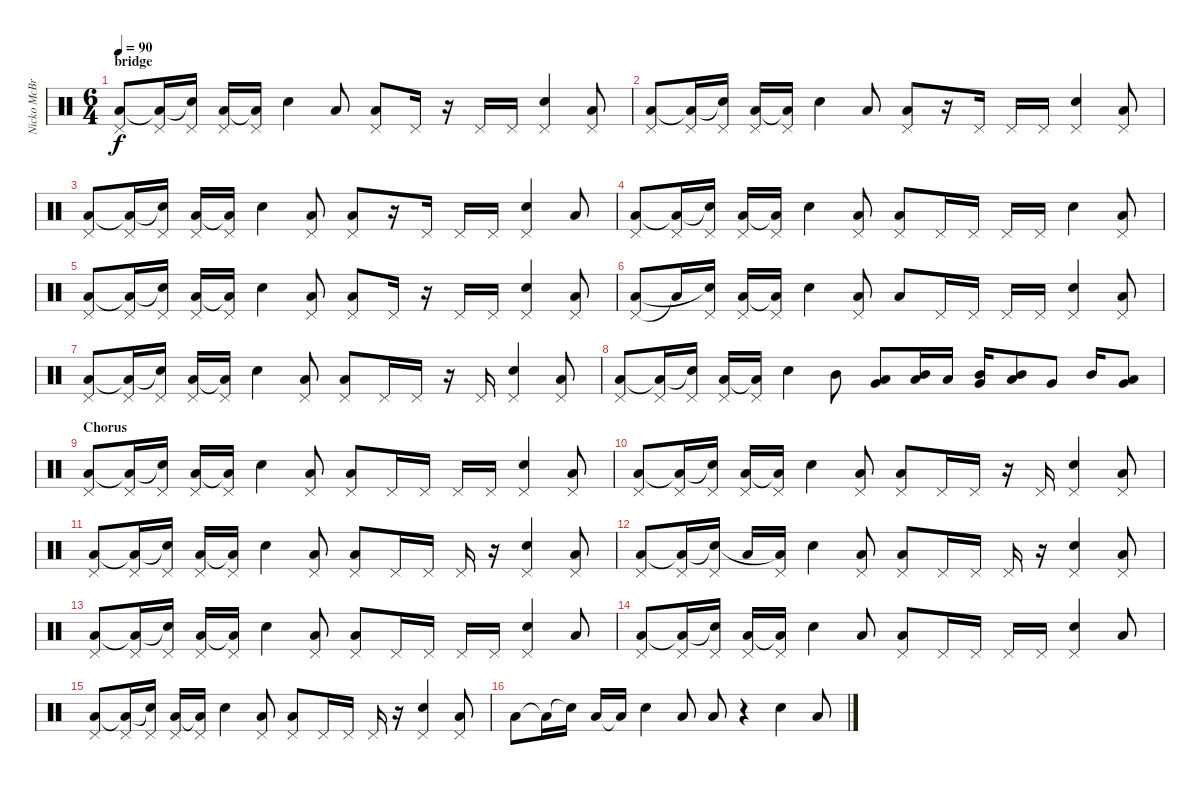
\track ("Nicko McBrain" "Nicko McBr") {instrument percussion}
\staff {score}
\articulation defaults
\ts (6 4)
\section ("" "bridge")
\tempo 90
\clef neutral
\ks c
("Pedal Hi-Hat (hit)" "Low Floor Tom (hit)").8{dy f} ("Pedal Hi-Hat (hit)" "Low Floor Tom (hit)"{t}).16 ("Pedal Hi-Hat (hit)" "Electric Snare (hit)"{t}).16 ("Pedal Hi-Hat (hit)" "Low Floor Tom (hit)").16 ("Pedal Hi-Hat (hit)" "Low Floor Tom (hit)"{t}).16 "Electric Snare (hit)".4 "Low Floor Tom (hit)".8 ("Pedal Hi-Hat (hit)" "Low Floor Tom (hit)").8 "Pedal Hi-Hat (hit)".16 r.16 "Pedal Hi-Hat (hit)".16 "Pedal Hi-Hat (hit)".16 ("Pedal Hi-Hat (hit)" "Electric Snare (hit)").4 ("Pedal Hi-Hat (hit)" "Low Floor Tom (hit)").8 |
("Pedal Hi-Hat (hit)" "Low Floor Tom (hit)").8 ("Pedal Hi-Hat (hit)" "Low Floor Tom (hit)"{t}).16 ("Pedal Hi-Hat (hit)" "Electric Snare (hit)"{t}).16 ("Pedal Hi-Hat (hit)" "Low Floor Tom (hit)").16 ("Pedal Hi-Hat (hit)" "Low Floor Tom (hit)"{t}).16 "Electric Snare (hit)".4 "Low Floor Tom (hit)".8 ("Pedal Hi-Hat (hit)" "Low Floor Tom (hit)").8 r.16 "Pedal Hi-Hat (hit)".16 "Pedal Hi-Hat (hit)".16 "Pedal Hi-Hat (hit)".16 ("Pedal Hi-Hat (hit)" "Electric Snare (hit)").4 ("Pedal Hi-Hat (hit)" "Low Floor Tom (hit)").8 |
("Pedal Hi-Hat (hit)" "Low Floor Tom (hit)").8 ("Pedal Hi-Hat (hit)" "Low Floor Tom (hit)"{t}).16 ("Pedal Hi-Hat (hit)" "Electric Snare (hit)"{t}).16 ("Pedal Hi-Hat (hit)" "Low Floor Tom (hit)").16 ("Pedal Hi-Hat (hit)" "Low Floor Tom (hit)"{t}).16 "Electric Snare (hit)".4 ("Pedal Hi-Hat (hit)" "Low Floor Tom (hit)").8 ("Pedal Hi-Hat (hit)" "Low Floor Tom (hit)").8 r.16 "Pedal Hi-Hat (hit)".16 "Pedal Hi-Hat (hit)".16 "Pedal Hi-Hat (hit)".16 ("Pedal Hi-Hat (hit)" "Electric Snare (hit)").4 "Low Floor Tom (hit)".8 |
("Pedal Hi-Hat (hit)" "Low Floor Tom (hit)").8 ("Pedal Hi-Hat (hit)" "Low Floor Tom (hit)"{t}).16 ("Pedal Hi-Hat (hit)" "Electric Snare (hit)"{t}).16 ("Pedal Hi-Hat (hit)" "Low Floor Tom (hit)").16 ("Pedal Hi-Hat (hit)" "Low Floor Tom (hit)"{t}).16 "Electric Snare (hit)".4 ("Pedal Hi-Hat (hit)" "Low Floor Tom (hit)").8 ("Pedal Hi-Hat (hit)" "Low Floor Tom (hit)").8 "Pedal Hi-Hat (hit)".16 "Pedal Hi-Hat (hit)".16 "Pedal Hi-Hat (hit)".16 "Pedal Hi-Hat (hit)".16 "Electric Snare (hit)".4 ("Pedal Hi-Hat (hit)" "Low Floor Tom (hit)").8 |
("Pedal Hi-Hat (hit)" "Low Floor Tom (hit)").8 ("Pedal Hi-Hat (hit)" "Low Floor Tom (hit)"{t}).16 ("Pedal Hi-Hat (hit)" "Electric Snare (hit)"{t}).16 ("Pedal Hi-Hat (hit)" "Low Floor Tom (hit)").16 ("Pedal Hi-Hat (hit)" "Low Floor Tom (hit)"{t}).16 "Electric Snare (hit)".4 ("Pedal Hi-Hat (hit)" "Low Floor Tom (hit)").8 ("Pedal Hi-Hat (hit)" "Low Floor Tom (hit)").8 "Pedal Hi-Hat (hit)".16 r.16 "Pedal Hi-Hat (hit)".16 "Pedal Hi-Hat (hit)".16 ("Pedal Hi-Hat (hit)" "Electric Snare (hit)").4 ("Pedal Hi-Hat (hit)" "Low Floor Tom (hit)").8 |
("Pedal Hi-Hat (hit)" "Low Floor Tom (hit)").8 "Low Floor Tom (hit)"{t}.16 ("Pedal Hi-Hat (hit)" "Electric Snare (hit)"{t}).16 ("Pedal Hi-Hat (hit)" "Low Floor Tom (hit)").16 ("Pedal Hi-Hat (hit)" "Low Floor Tom (hit)"{t}).16 "Electric Snare (hit)".4 ("Pedal Hi-Hat (hit)" "Low Floor Tom (hit)").8 "Low Floor Tom (hit)".8 "Pedal Hi-Hat (hit)".16 "Pedal Hi-Hat (hit)".16 "Pedal Hi-Hat (hit)".16 "Pedal Hi-Hat (hit)".16 ("Pedal Hi-Hat (hit)" "Electric Snare (hit)").4 ("Pedal Hi-Hat (hit)" "Low Floor Tom (hit)").8 |
("Pedal Hi-Hat (hit)" "Low Floor Tom (hit)").8 ("Pedal Hi-Hat (hit)" "Low Floor Tom (hit)"{t}).16 ("Pedal Hi-Hat (hit)" "Electric Snare (hit)"{t}).16 ("Pedal Hi-Hat (hit)" "Low Floor Tom (hit)").16 ("Pedal Hi-Hat (hit)" "Low Floor Tom (hit)"{t}).16 "Electric Snare (hit)".4 ("Pedal Hi-Hat (hit)" "Low Floor Tom (hit)").8 ("Pedal Hi-Hat (hit)" "Low Floor Tom (hit)").8 "Pedal Hi-Hat (hit)".16 "Pedal Hi-Hat (hit)".16 r.16 "Pedal Hi-Hat (hit)".16 ("Pedal Hi-Hat (hit)" "Electric Snare (hit)").4 ("Pedal Hi-Hat (hit)" "Low Floor Tom (hit)").8 |
("Pedal Hi-Hat (hit)" "Low Floor Tom (hit)").8 ("Pedal Hi-Hat (hit)" "Low Floor Tom (hit)"{t}).16 ("Pedal Hi-Hat (hit)" "Electric Snare (hit)"{t}).16 ("Pedal Hi-Hat (hit)" "Low Floor Tom (hit)").16 ("Pedal Hi-Hat (hit)" "Low Floor Tom (hit)"{t}).16 "Electric Snare (hit)".4 "Mid Tom (hit)".8 ("Very Low Tom (hit)" "Low Tom (hit)").8 ("Mid Tom (hit)" "Low Tom (hit)").16 "Low Tom (hit)".16 ("Very Low Tom (hit)" "Mid Tom (hit)").16 ("Mid Tom (hit)" "Low Tom (hit)").8 "Very Low Tom (hit)".8 "Mid Tom (hit)".16 ("Very Low Tom (hit)" "Low Tom (hit)").8 |
\section ("" "Chorus")
("Pedal Hi-Hat (hit)" "Low Floor Tom (hit)").8 ("Pedal Hi-Hat (hit)" "Low Floor Tom (hit)"{t}).16 ("Pedal Hi-Hat (hit)" "Electric Snare (hit)"{t}).16 ("Pedal Hi-Hat (hit)" "Low Floor Tom (hit)").16 ("Pedal Hi-Hat (hit)" "Low Floor Tom (hit)"{t}).16 "Electric Snare (hit)".4 ("Pedal Hi-Hat (hit)" "Low Floor Tom (hit)").8 ("Pedal Hi-Hat (hit)" "Low Floor Tom (hit)").8 "Pedal Hi-Hat (hit)".16 "Pedal Hi-Hat (hit)".16 "Pedal Hi-Hat (hit)".16 "Pedal Hi-Hat (hit)".16 ("Pedal Hi-Hat (hit)" "Electric Snare (hit)").4 ("Pedal Hi-Hat (hit)" "Low Floor Tom (hit)").8 |
("Pedal Hi-Hat (hit)" "Low Floor Tom (hit)").8 ("Pedal Hi-Hat (hit)" "Low Floor Tom (hit)"{t}).16 ("Pedal Hi-Hat (hit)" "Electric Snare (hit)"{t}).16 ("Pedal Hi-Hat (hit)" "Low Floor Tom (hit)").16 ("Pedal Hi-Hat (hit)" "Low Floor Tom (hit)"{t}).16 "Electric Snare (hit)".4 ("Pedal Hi-Hat (hit)" "Low Floor Tom (hit)").8 ("Pedal Hi-Hat (hit)" "Low Floor Tom (hit)").8 "Pedal Hi-Hat (hit)".16 "Pedal Hi-Hat (hit)".16 r.16 "Pedal Hi-Hat (hit)".16 ("Pedal Hi-Hat (hit)" "Electric Snare (hit)").4 ("Pedal Hi-Hat (hit)" "Low Floor Tom (hit)").8 |
("Pedal Hi-Hat (hit)" "Low Floor Tom (hit)").8 ("Pedal Hi-Hat (hit)" "Low Floor Tom (hit)"{t}).16 ("Pedal Hi-Hat (hit)" "Electric Snare (hit)"{t}).16 ("Pedal Hi-Hat (hit)" "Low Floor Tom (hit)").16 ("Pedal Hi-Hat (hit)" "Low Floor Tom (hit)"{t}).16 "Electric Snare (hit)".4 ("Pedal Hi-Hat (hit)" "Low Floor Tom (hit)").8 ("Pedal Hi-Hat (hit)" "Low Floor Tom (hit)").8 "Pedal Hi-Hat (hit)".16 "Pedal Hi-Hat (hit)".16 "Pedal Hi-Hat (hit)".16 r.16 ("Pedal Hi-Hat (hit)" "Electric Snare (hit)").4 ("Pedal Hi-Hat (hit)" "Low Floor Tom (hit)").8 |
("Pedal Hi-Hat (hit)" "Low Floor Tom (hit)").8 ("Pedal Hi-Hat (hit)" "Low Floor Tom (hit)"{t}).16 ("Pedal Hi-Hat (hit)" "Electric Snare (hit)"{t}).16 "Low Floor Tom (hit)".16 ("Pedal Hi-Hat (hit)" "Low Floor Tom (hit)"{t}).16 "Electric Snare (hit)".4 ("Pedal Hi-Hat (hit)" "Low Floor Tom (hit)").8 ("Pedal Hi-Hat (hit)" "Low Floor Tom (hit)").8 "Pedal Hi-Hat (hit)".16 "Pedal Hi-Hat (hit)".16 "Pedal Hi-Hat (hit)".16 r.16 ("Pedal Hi-Hat (hit)" "Electric Snare (hit)").4 ("Pedal Hi-Hat (hit)" "Low Floor Tom (hit)").8 |
("Pedal Hi-Hat (hit)" "Low Floor Tom (hit)").8 ("Pedal Hi-Hat (hit)" "Low Floor Tom (hit)"{t}).16 ("Pedal Hi-Hat (hit)" "Electric Snare (hit)"{t}).16 ("Pedal Hi-Hat (hit)" "Low Floor Tom (hit)").16 ("Pedal Hi-Hat (hit)" "Low Floor Tom (hit)"{t}).16 "Electric Snare (hit)".4 ("Pedal Hi-Hat (hit)" "Low Floor Tom (hit)").8 ("Pedal Hi-Hat (hit)" "Low Floor Tom (hit)").8 "Pedal Hi-Hat (hit)".16 "Pedal Hi-Hat (hit)".16 "Pedal Hi-Hat (hit)".16 "Pedal Hi-Hat (hit)".16 ("Pedal Hi-Hat (hit)" "Electric Snare (hit)").4 "Low Floor Tom (hit)".8 |
("Pedal Hi-Hat (hit)" "Low Floor Tom (hit)").8 ("Pedal Hi-Hat (hit)" "Low Floor Tom (hit)"{t}).16 ("Pedal Hi-Hat (hit)" "Electric Snare (hit)"{t}).16 ("Pedal Hi-Hat (hit)" "Low Floor Tom (hit)").16 ("Pedal Hi-Hat (hit)" "Low Floor Tom (hit)"{t}).16 "Electric Snare (hit)".4 "Low Floor Tom (hit)".8 ("Pedal Hi-Hat (hit)" "Low Floor Tom (hit)").8 "Pedal Hi-Hat (hit)".16 "Pedal Hi-Hat (hit)".16 "Pedal Hi-Hat (hit)".16 "Pedal Hi-Hat (hit)".16 ("Pedal Hi-Hat (hit)" "Electric Snare (hit)").4 "Low Floor Tom (hit)".8 |
("Pedal Hi-Hat (hit)" "Low Floor Tom (hit)").8 ("Pedal Hi-Hat (hit)" "Low Floor Tom (hit)"{t}).16 ("Pedal Hi-Hat (hit)" "Electric Snare (hit)"{t}).16 ("Pedal Hi-Hat (hit)" "Low Floor Tom (hit)").16 ("Pedal Hi-Hat (hit)" "Low Floor Tom (hit)"{t}).16 "Electric Snare (hit)".4 ("Pedal Hi-Hat (hit)" "Low Floor Tom (hit)").8 ("Pedal Hi-Hat (hit)" "Low Floor Tom (hit)").8 "Pedal Hi-Hat (hit)".16 "Pedal Hi-Hat (hit)".16 "Pedal Hi-Hat (hit)".16 r.16 ("Pedal Hi-Hat (hit)" "Electric Snare (hit)").4 ("Pedal Hi-Hat (hit)" "Low Floor Tom (hit)").8 |
"Low Floor Tom (hit)".8 "Low Floor Tom (hit)"{t}.16 "Electric Snare (hit)"{t}.16 "Low Floor Tom (hit)".16 "Low Floor Tom (hit)"{t}.16 "Electric Snare (hit)".4 "Low Floor Tom (hit)".8 "Low Floor Tom (hit)".8 r.4 "Electric Snare (hit)".4 "Low Floor Tom (hit)".8
